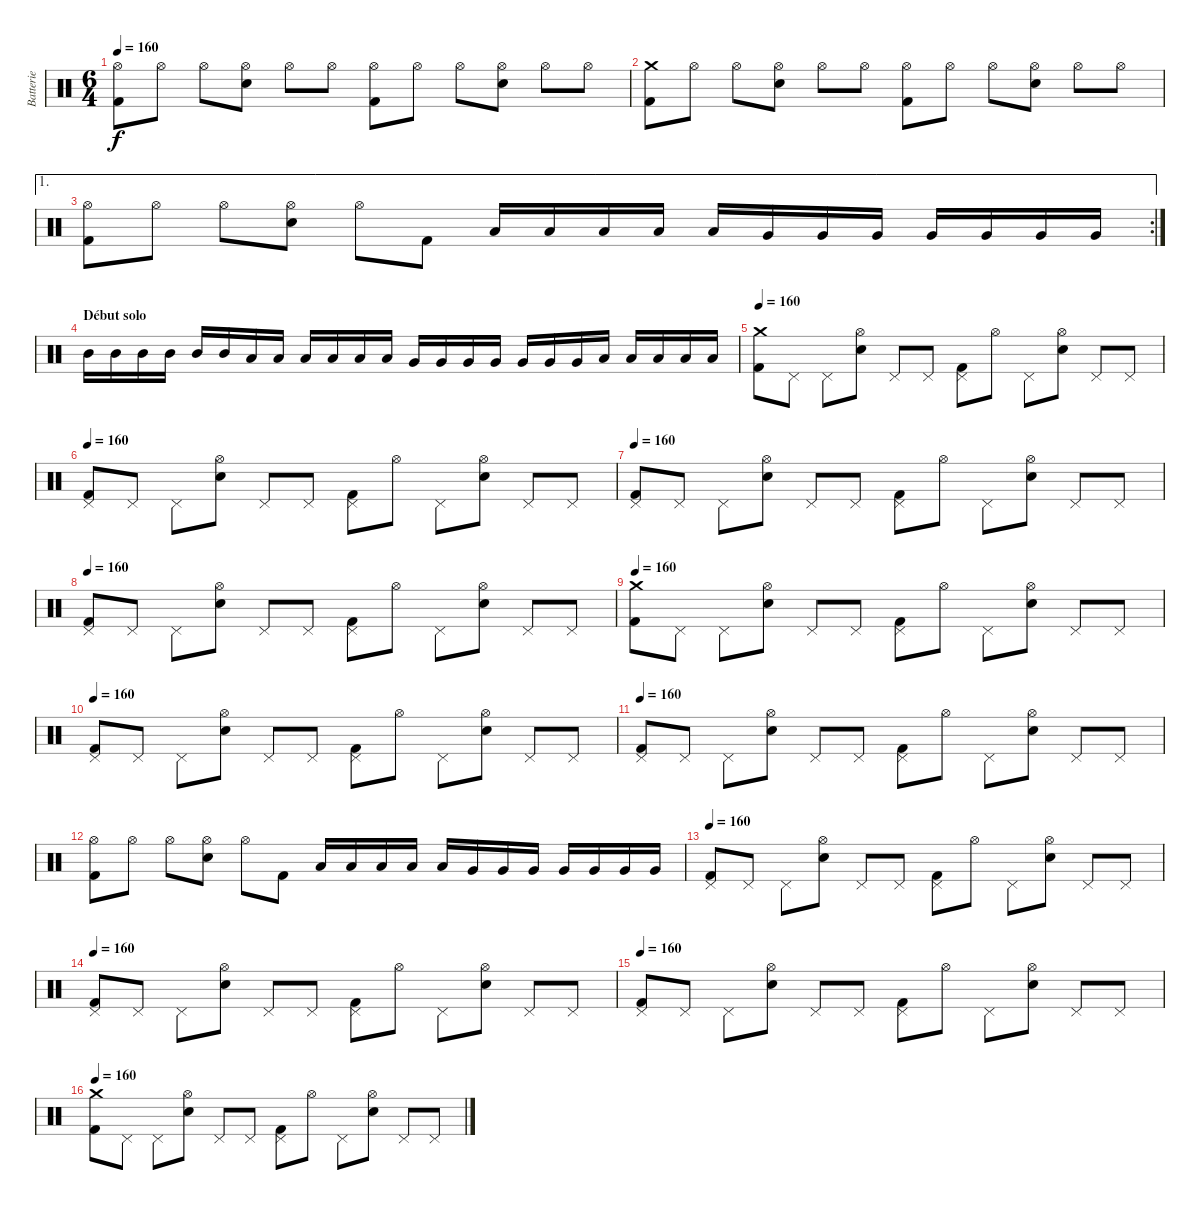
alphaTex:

\track ("Batterie" "Batterie") {instrument percussion}
\staff {score}
\articulation defaults
\ts (6 4)
\tempo 160
\clef neutral
\ks c
("Hi-Hat (open)" "Kick (hit) 2").8{dy f} "Hi-Hat (open)".8 "Hi-Hat (open)".8 ("Hi-Hat (open)" "Electric Snare (hit)").8 "Hi-Hat (open)".8 "Hi-Hat (open)".8 ("Hi-Hat (open)" "Kick (hit) 2").8 "Hi-Hat (open)".8 "Hi-Hat (open)".8 ("Hi-Hat (open)" "Electric Snare (hit)").8 "Hi-Hat (open)".8 "Hi-Hat (open)".8 |
("Crash medium (hit)" "Kick (hit) 2").8 "Hi-Hat (open)".8 "Hi-Hat (open)".8 ("Hi-Hat (open)" "Electric Snare (hit)").8 "Hi-Hat (open)".8 "Hi-Hat (open)".8 ("Hi-Hat (open)" "Kick (hit) 2").8 "Hi-Hat (open)".8 "Hi-Hat (open)".8 ("Hi-Hat (open)" "Electric Snare (hit)").8 "Hi-Hat (open)".8 "Hi-Hat (open)".8 |
\ae 1
\rc 2
("Hi-Hat (open)" "Kick (hit) 2").8 "Hi-Hat (open)".8 "Hi-Hat (open)".8 ("Hi-Hat (open)" "Electric Snare (hit)").8 "Hi-Hat (open)".8 "Kick (hit) 2".8 "Low Tom (hit)".16 "Low Tom (hit)".16 "Low Tom (hit)".16 "Low Tom (hit)".16 "Low Tom (hit)".16 "Very Low Tom (hit)".16 "Very Low Tom (hit)".16 "Very Low Tom (hit)".16 "Very Low Tom (hit)".16 "Very Low Tom (hit)".16 "Very Low Tom (hit)".16 "Very Low Tom (hit)".16 |
\section ("" "Début solo")
"Mid Tom (hit)".16 "Mid Tom (hit)".16 "Mid Tom (hit)".16 "Mid Tom (hit)".16 "Mid Tom (hit)".16 "Mid Tom (hit)".16 "Low Tom (hit)".16 "Low Tom (hit)".16 "Low Tom (hit)".16 "Low Tom (hit)".16 "Low Tom (hit)".16 "Low Tom (hit)".16 "Very Low Tom (hit)".16 "Very Low Tom (hit)".16 "Very Low Tom (hit)".16 "Very Low Tom (hit)".16 "Very Low Tom (hit)".16 "Very Low Tom (hit)".16 "Very Low Tom (hit)".16 "Low Floor Tom (hit)".16 "Low Floor Tom (hit)".16 "Low Floor Tom (hit)".16 "Low Floor Tom (hit)".16 "Low Floor Tom (hit)".16 |
\tempo 160
("Crash medium (hit)" "Kick (hit) 2").8 "Pedal Hi-Hat (hit)".8 "Pedal Hi-Hat (hit)".8 ("Hi-Hat (open)" "Electric Snare (hit)").8 "Pedal Hi-Hat (hit)".8 "Pedal Hi-Hat (hit)".8 ("Pedal Hi-Hat (hit)" "Kick (hit) 2").8 "Hi-Hat (open)".8 "Pedal Hi-Hat (hit)".8 ("Hi-Hat (open)" "Electric Snare (hit)").8 "Pedal Hi-Hat (hit)".8 "Pedal Hi-Hat (hit)".8 |
\tempo 160
("Pedal Hi-Hat (hit)" "Kick (hit) 2").8 "Pedal Hi-Hat (hit)".8 "Pedal Hi-Hat (hit)".8 ("Hi-Hat (open)" "Electric Snare (hit)").8 "Pedal Hi-Hat (hit)".8 "Pedal Hi-Hat (hit)".8 ("Pedal Hi-Hat (hit)" "Kick (hit) 2").8 "Hi-Hat (open)".8 "Pedal Hi-Hat (hit)".8 ("Hi-Hat (open)" "Electric Snare (hit)").8 "Pedal Hi-Hat (hit)".8 "Pedal Hi-Hat (hit)".8 |
\tempo 160
("Pedal Hi-Hat (hit)" "Kick (hit) 2").8 "Pedal Hi-Hat (hit)".8 "Pedal Hi-Hat (hit)".8 ("Hi-Hat (open)" "Electric Snare (hit)").8 "Pedal Hi-Hat (hit)".8 "Pedal Hi-Hat (hit)".8 ("Pedal Hi-Hat (hit)" "Kick (hit) 2").8 "Hi-Hat (open)".8 "Pedal Hi-Hat (hit)".8 ("Hi-Hat (open)" "Electric Snare (hit)").8 "Pedal Hi-Hat (hit)".8 "Pedal Hi-Hat (hit)".8 |
\tempo 160
("Pedal Hi-Hat (hit)" "Kick (hit) 2").8 "Pedal Hi-Hat (hit)".8 "Pedal Hi-Hat (hit)".8 ("Hi-Hat (open)" "Electric Snare (hit)").8 "Pedal Hi-Hat (hit)".8 "Pedal Hi-Hat (hit)".8 ("Pedal Hi-Hat (hit)" "Kick (hit) 2").8 "Hi-Hat (open)".8 "Pedal Hi-Hat (hit)".8 ("Hi-Hat (open)" "Electric Snare (hit)").8 "Pedal Hi-Hat (hit)".8 "Pedal Hi-Hat (hit)".8 |
\tempo 160
("Crash medium (hit)" "Kick (hit) 2").8 "Pedal Hi-Hat (hit)".8 "Pedal Hi-Hat (hit)".8 ("Hi-Hat (open)" "Electric Snare (hit)").8 "Pedal Hi-Hat (hit)".8 "Pedal Hi-Hat (hit)".8 ("Pedal Hi-Hat (hit)" "Kick (hit) 2").8 "Hi-Hat (open)".8 "Pedal Hi-Hat (hit)".8 ("Hi-Hat (open)" "Electric Snare (hit)").8 "Pedal Hi-Hat (hit)".8 "Pedal Hi-Hat (hit)".8 |
\tempo 160
("Pedal Hi-Hat (hit)" "Kick (hit) 2").8 "Pedal Hi-Hat (hit)".8 "Pedal Hi-Hat (hit)".8 ("Hi-Hat (open)" "Electric Snare (hit)").8 "Pedal Hi-Hat (hit)".8 "Pedal Hi-Hat (hit)".8 ("Pedal Hi-Hat (hit)" "Kick (hit) 2").8 "Hi-Hat (open)".8 "Pedal Hi-Hat (hit)".8 ("Hi-Hat (open)" "Electric Snare (hit)").8 "Pedal Hi-Hat (hit)".8 "Pedal Hi-Hat (hit)".8 |
\tempo 160
("Pedal Hi-Hat (hit)" "Kick (hit) 2").8 "Pedal Hi-Hat (hit)".8 "Pedal Hi-Hat (hit)".8 ("Hi-Hat (open)" "Electric Snare (hit)").8 "Pedal Hi-Hat (hit)".8 "Pedal Hi-Hat (hit)".8 ("Pedal Hi-Hat (hit)" "Kick (hit) 2").8 "Hi-Hat (open)".8 "Pedal Hi-Hat (hit)".8 ("Hi-Hat (open)" "Electric Snare (hit)").8 "Pedal Hi-Hat (hit)".8 "Pedal Hi-Hat (hit)".8 |
("Hi-Hat (open)" "Kick (hit) 2").8 "Hi-Hat (open)".8 "Hi-Hat (open)".8 ("Hi-Hat (open)" "Electric Snare (hit)").8 "Hi-Hat (open)".8 "Kick (hit) 2".8 "Low Tom (hit)".16 "Low Tom (hit)".16 "Low Tom (hit)".16 "Low Tom (hit)".16 "Low Tom (hit)".16 "Very Low Tom (hit)".16 "Very Low Tom (hit)".16 "Very Low Tom (hit)".16 "Very Low Tom (hit)".16 "Very Low Tom (hit)".16 "Very Low Tom (hit)".16 "Very Low Tom (hit)".16 |
\tempo 160
("Pedal Hi-Hat (hit)" "Kick (hit) 2").8 "Pedal Hi-Hat (hit)".8 "Pedal Hi-Hat (hit)".8 ("Hi-Hat (open)" "Electric Snare (hit)").8 "Pedal Hi-Hat (hit)".8 "Pedal Hi-Hat (hit)".8 ("Pedal Hi-Hat (hit)" "Kick (hit) 2").8 "Hi-Hat (open)".8 "Pedal Hi-Hat (hit)".8 ("Hi-Hat (open)" "Electric Snare (hit)").8 "Pedal Hi-Hat (hit)".8 "Pedal Hi-Hat (hit)".8 |
\tempo 160
("Pedal Hi-Hat (hit)" "Kick (hit) 2").8 "Pedal Hi-Hat (hit)".8 "Pedal Hi-Hat (hit)".8 ("Hi-Hat (open)" "Electric Snare (hit)").8 "Pedal Hi-Hat (hit)".8 "Pedal Hi-Hat (hit)".8 ("Pedal Hi-Hat (hit)" "Kick (hit) 2").8 "Hi-Hat (open)".8 "Pedal Hi-Hat (hit)".8 ("Hi-Hat (open)" "Electric Snare (hit)").8 "Pedal Hi-Hat (hit)".8 "Pedal Hi-Hat (hit)".8 |
\tempo 160
("Pedal Hi-Hat (hit)" "Kick (hit) 2").8 "Pedal Hi-Hat (hit)".8 "Pedal Hi-Hat (hit)".8 ("Hi-Hat (open)" "Electric Snare (hit)").8 "Pedal Hi-Hat (hit)".8 "Pedal Hi-Hat (hit)".8 ("Pedal Hi-Hat (hit)" "Kick (hit) 2").8 "Hi-Hat (open)".8 "Pedal Hi-Hat (hit)".8 ("Hi-Hat (open)" "Electric Snare (hit)").8 "Pedal Hi-Hat (hit)".8 "Pedal Hi-Hat (hit)".8 |
\tempo 160
("Crash medium (hit)" "Kick (hit) 2").8 "Pedal Hi-Hat (hit)".8 "Pedal Hi-Hat (hit)".8 ("Hi-Hat (open)" "Electric Snare (hit)").8 "Pedal Hi-Hat (hit)".8 "Pedal Hi-Hat (hit)".8 ("Pedal Hi-Hat (hit)" "Kick (hit) 2").8 "Hi-Hat (open)".8 "Pedal Hi-Hat (hit)".8 ("Hi-Hat (open)" "Electric Snare (hit)").8 "Pedal Hi-Hat (hit)".8 "Pedal Hi-Hat (hit)".8
